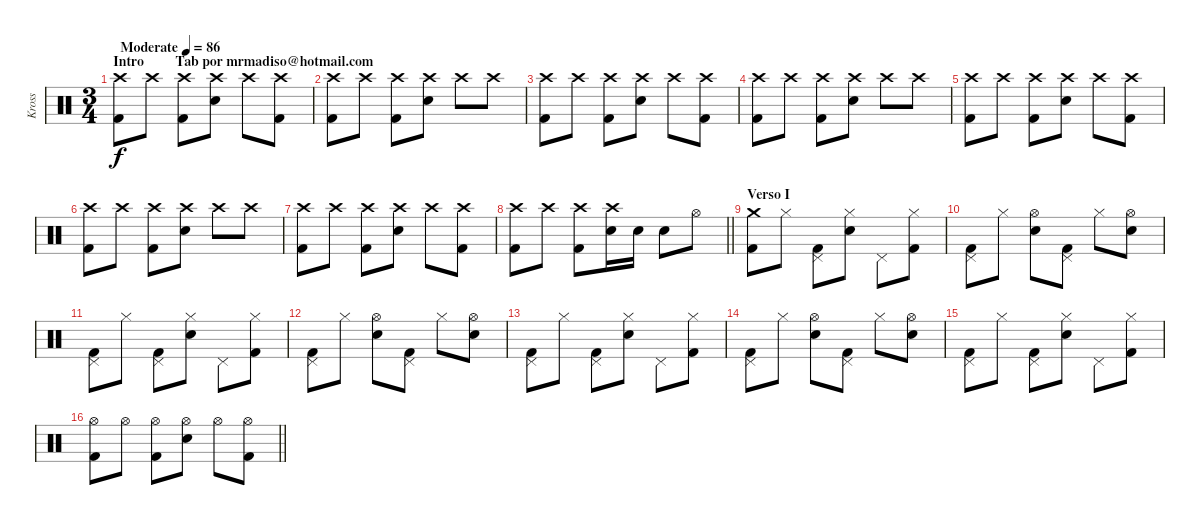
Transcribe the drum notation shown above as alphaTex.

\track ("Kross" "Kross") {instrument percussion}
\staff {score}
\articulation defaults
\ts (3 4)
\section ("" "Intro         Tab por mrmadiso@hotmail.com")
\tempo (86 "Moderate")
\clef neutral
\ks c
("Crash high (hit)" "Kick (hit) 2").8{dy f} "Crash high (hit)".8 ("Crash high (hit)" "Kick (hit) 2").8 ("Crash high (hit)" "Snare (hit) 2").8 "Crash high (hit)".8 ("Crash high (hit)" "Kick (hit) 2").8 |
("Crash high (hit)" "Kick (hit) 2").8 "Crash high (hit)".8 ("Crash high (hit)" "Kick (hit) 2").8 ("Crash high (hit)" "Snare (hit) 2").8 "Crash high (hit)".8 "Crash high (hit)".8 |
("Crash high (hit)" "Kick (hit) 2").8 "Crash high (hit)".8 ("Crash high (hit)" "Kick (hit) 2").8 ("Crash high (hit)" "Snare (hit) 2").8 "Crash high (hit)".8 ("Crash high (hit)" "Kick (hit) 2").8 |
("Crash high (hit)" "Kick (hit) 2").8 "Crash high (hit)".8 ("Crash high (hit)" "Kick (hit) 2").8 ("Crash high (hit)" "Snare (hit) 2").8 "Crash high (hit)".8 "Crash high (hit)".8 |
("Crash high (hit)" "Kick (hit) 2").8 "Crash high (hit)".8 ("Crash high (hit)" "Kick (hit) 2").8 ("Crash high (hit)" "Snare (hit) 2").8 "Crash high (hit)".8 ("Crash high (hit)" "Kick (hit) 2").8 |
("Crash high (hit)" "Kick (hit) 2").8 "Crash high (hit)".8 ("Crash high (hit)" "Kick (hit) 2").8 ("Crash high (hit)" "Snare (hit) 2").8 "Crash high (hit)".8 "Crash high (hit)".8 |
("Crash high (hit)" "Kick (hit) 2").8 "Crash high (hit)".8 ("Crash high (hit)" "Kick (hit) 2").8 ("Crash high (hit)" "Snare (hit) 2").8 "Crash high (hit)".8 ("Crash high (hit)" "Kick (hit) 2").8 |
\barLineRight lightlight
("Crash high (hit)" "Kick (hit) 2").8 "Crash high (hit)".8 ("Crash high (hit)" "Kick (hit) 2").8 ("Crash high (hit)" "Electric Snare (hit)").16 "Electric Snare (hit)".16 "Electric Snare (hit)".8 "Hi-Hat (open)".8 |
\section ("" "Verso I")
("Crash medium (hit)" "Kick (hit) 2").8 "Hi-Hat (closed)".8 ("Pedal Hi-Hat (hit)" "Kick (hit) 2").8 ("Hi-Hat (closed)" "Electric Snare (hit)").8 "Pedal Hi-Hat (hit)".8 ("Hi-Hat (closed)" "Kick (hit) 2").8 |
("Pedal Hi-Hat (hit)" "Kick (hit) 2").8 "Hi-Hat (closed)".8 ("Hi-Hat (open)" "Electric Snare (hit)").8 ("Pedal Hi-Hat (hit)" "Kick (hit) 2").8 "Hi-Hat (closed)".8 ("Hi-Hat (open)" "Electric Snare (hit)").8 |
("Pedal Hi-Hat (hit)" "Kick (hit) 2").8 "Hi-Hat (closed)".8 ("Pedal Hi-Hat (hit)" "Kick (hit) 2").8 ("Hi-Hat (closed)" "Electric Snare (hit)").8 "Pedal Hi-Hat (hit)".8 ("Hi-Hat (closed)" "Kick (hit) 2").8 |
("Pedal Hi-Hat (hit)" "Kick (hit) 2").8 "Hi-Hat (closed)".8 ("Hi-Hat (open)" "Electric Snare (hit)").8 ("Pedal Hi-Hat (hit)" "Kick (hit) 2").8 "Hi-Hat (closed)".8 ("Hi-Hat (open)" "Electric Snare (hit)").8 |
("Pedal Hi-Hat (hit)" "Kick (hit) 2").8 "Hi-Hat (closed)".8 ("Pedal Hi-Hat (hit)" "Kick (hit) 2").8 ("Hi-Hat (closed)" "Electric Snare (hit)").8 "Pedal Hi-Hat (hit)".8 ("Hi-Hat (closed)" "Kick (hit) 2").8 |
("Pedal Hi-Hat (hit)" "Kick (hit) 2").8 "Hi-Hat (closed)".8 ("Hi-Hat (open)" "Electric Snare (hit)").8 ("Pedal Hi-Hat (hit)" "Kick (hit) 2").8 "Hi-Hat (closed)".8 ("Hi-Hat (open)" "Electric Snare (hit)").8 |
("Pedal Hi-Hat (hit)" "Kick (hit) 2").8 "Hi-Hat (closed)".8 ("Pedal Hi-Hat (hit)" "Kick (hit) 2").8 ("Hi-Hat (closed)" "Electric Snare (hit)").8 "Pedal Hi-Hat (hit)".8 ("Hi-Hat (closed)" "Kick (hit) 2").8 |
\barLineRight lightlight
("Hi-Hat (open)" "Kick (hit) 2").8 "Hi-Hat (open)".8 ("Hi-Hat (open)" "Kick (hit) 2").8 ("Hi-Hat (open)" "Electric Snare (hit)").8 "Hi-Hat (open)".8 ("Hi-Hat (open)" "Kick (hit) 2").8
